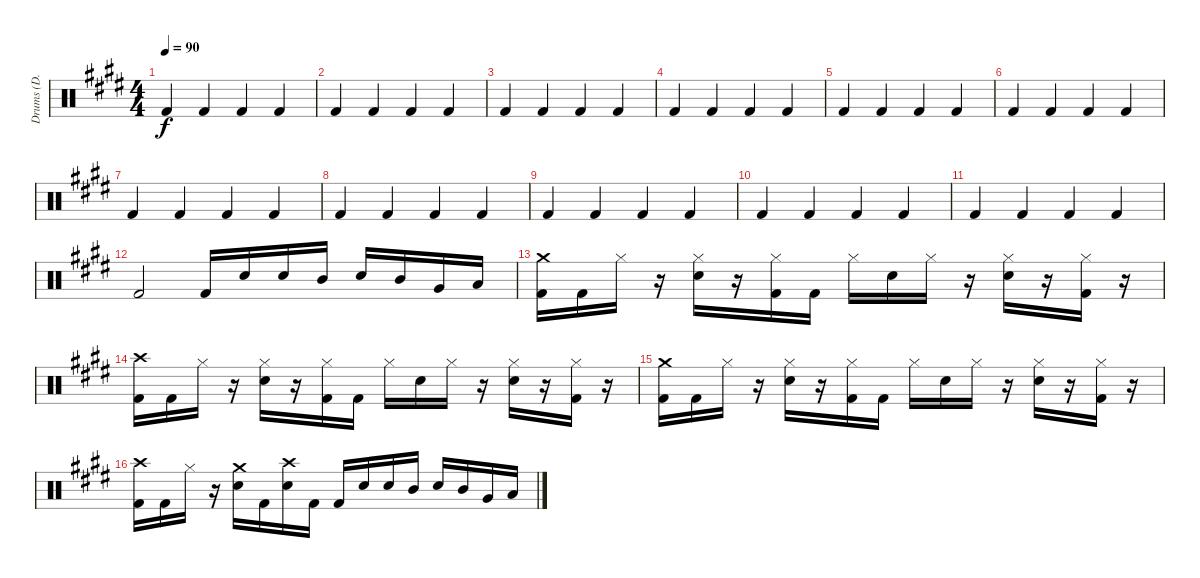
\track ("Drums (D. Adair)" "Drums (D. ") {instrument percussion}
\staff {score}
\articulation defaults
\ts (4 4)
\tempo 90
\clef neutral
\ks e "Kick (hit) 2".4{dy f} "Kick (hit) 2".4 "Kick (hit) 2".4 "Kick (hit) 2".4
|
"Kick (hit) 2".4 "Kick (hit) 2".4 "Kick (hit) 2".4 "Kick (hit) 2".4 |
"Kick (hit) 2".4 "Kick (hit) 2".4 "Kick (hit) 2".4 "Kick (hit) 2".4 |
"Kick (hit) 2".4 "Kick (hit) 2".4 "Kick (hit) 2".4 "Kick (hit) 2".4 |
"Kick (hit) 2".4 "Kick (hit) 2".4 "Kick (hit) 2".4 "Kick (hit) 2".4 |
"Kick (hit) 2".4 "Kick (hit) 2".4 "Kick (hit) 2".4 "Kick (hit) 2".4 |
"Kick (hit) 2".4 "Kick (hit) 2".4 "Kick (hit) 2".4 "Kick (hit) 2".4 |
"Kick (hit) 2".4 "Kick (hit) 2".4 "Kick (hit) 2".4 "Kick (hit) 2".4 |
"Kick (hit) 2".4 "Kick (hit) 2".4 "Kick (hit) 2".4 "Kick (hit) 2".4 |
"Kick (hit) 2".4 "Kick (hit) 2".4 "Kick (hit) 2".4 "Kick (hit) 2".4 |
"Kick (hit) 2".4 "Kick (hit) 2".4 "Kick (hit) 2".4 "Kick (hit) 2".4 |
"Kick (hit) 2".2 "Kick (hit) 2".16 "Snare (hit) 2".16 "Snare (hit) 2".16 "Mid Tom (hit)".16 "Snare (hit) 2".16 "Mid Tom (hit)".16 "Very Low Tom (hit)".16 "Low Floor Tom (hit)".16 |
("Crash medium (hit)" "Kick (hit) 2").16 "Kick (hit) 2".16 "Hi-Hat (closed)".16 r.16 ("Hi-Hat (closed)" "Snare (hit) 2").16 r.16 ("Hi-Hat (closed)" "Kick (hit) 2").16 "Kick (hit) 2".16 "Hi-Hat (closed)".16 "Snare (hit) 2".16 "Hi-Hat (closed)".16 r.16 ("Hi-Hat (closed)" "Snare (hit) 2").16 r.16 ("Hi-Hat (closed)" "Kick (hit) 2").16 r.16 |
("Crash high (hit)" "Kick (hit) 2").16 "Kick (hit) 2".16 "Hi-Hat (closed)".16 r.16 ("Hi-Hat (closed)" "Snare (hit) 2").16 r.16 ("Hi-Hat (closed)" "Kick (hit) 2").16 "Kick (hit) 2".16 "Hi-Hat (closed)".16 "Snare (hit) 2".16 "Hi-Hat (closed)".16 r.16 ("Hi-Hat (closed)" "Snare (hit) 2").16 r.16 ("Hi-Hat (closed)" "Kick (hit) 2").16 r.16 |
("Crash medium (hit)" "Kick (hit) 2").16 "Kick (hit) 2".16 "Hi-Hat (closed)".16 r.16 ("Hi-Hat (closed)" "Snare (hit) 2").16 r.16 ("Hi-Hat (closed)" "Kick (hit) 2").16 "Kick (hit) 2".16 "Hi-Hat (closed)".16 "Snare (hit) 2".16 "Hi-Hat (closed)".16 r.16 ("Hi-Hat (closed)" "Snare (hit) 2").16 r.16 ("Hi-Hat (closed)" "Kick (hit) 2").16 r.16 |
("Crash high (hit)" "Kick (hit) 2").16 "Kick (hit) 2".16 "Hi-Hat (closed)".16 r.16 ("Crash medium (hit)" "Snare (hit) 2").16 "Kick (hit) 2".16 ("Crash high (hit)" "Snare (hit) 2").16 "Kick (hit) 2".16 "Kick (hit) 2".16 "Snare (hit) 2".16 "Snare (hit) 2".16 "Mid Tom (hit)".16 "Snare (hit) 2".16 "Mid Tom (hit)".16 "Very Low Tom (hit)".16 "Low Floor Tom (hit)".16
